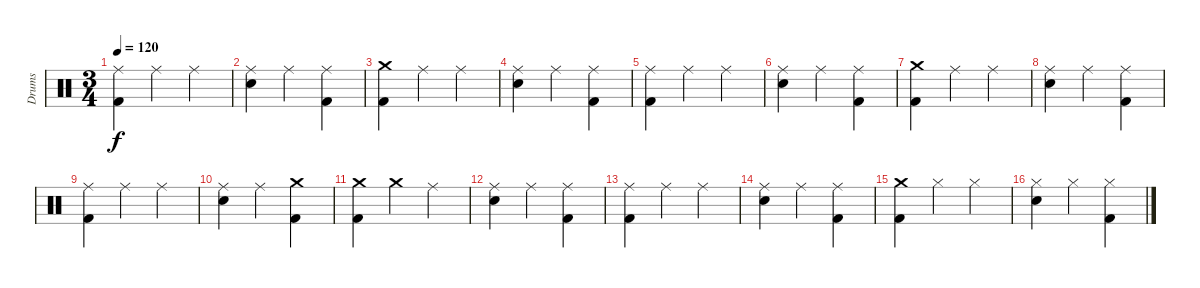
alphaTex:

\track ("Drums" "Drums") {instrument percussion}
\staff {score}
\articulation defaults
\ts (3 4)
\tempo 120
\clef neutral
\ks c
("Ride (middle)" "Kick (hit) 2").4{dy f} "Ride (middle)".4 "Ride (middle)".4 |
("Ride (middle)" "Electric Snare (hit)").4 "Ride (middle)".4 ("Ride (middle)" "Kick (hit) 2").4 |
("Crash medium (hit)" "Kick (hit) 2").4 "Ride (middle)".4 "Ride (middle)".4 |
("Ride (middle)" "Electric Snare (hit)").4 "Ride (middle)".4 ("Ride (middle)" "Kick (hit) 2").4 |
("Ride (middle)" "Kick (hit) 2").4 "Ride (middle)".4 "Ride (middle)".4 |
("Ride (middle)" "Electric Snare (hit)").4 "Ride (middle)".4 ("Ride (middle)" "Kick (hit) 2").4 |
("Crash medium (hit)" "Kick (hit) 2").4 "Ride (middle)".4 "Ride (middle)".4 |
("Ride (middle)" "Electric Snare (hit)").4 "Ride (middle)".4 ("Ride (middle)" "Kick (hit) 2").4 |
("Ride (middle)" "Kick (hit) 2").4 "Ride (middle)".4 "Ride (middle)".4 |
("Ride (middle)" "Electric Snare (hit)").4 "Ride (middle)".4 ("Crash medium (hit)" "Kick (hit) 2").4 |
("Crash medium (hit)" "Kick (hit) 2").4 "Crash medium (hit)".4 "Ride (middle)".4 |
("Ride (middle)" "Electric Snare (hit)").4 "Ride (middle)".4 ("Ride (middle)" "Kick (hit) 2").4 |
("Ride (middle)" "Kick (hit) 2").4 "Ride (middle)".4 "Ride (middle)".4 |
("Ride (middle)" "Electric Snare (hit)").4 "Ride (middle)".4 ("Ride (middle)" "Kick (hit) 2").4 |
("Crash medium (hit)" "Kick (hit) 2").4 "Hi-Hat (closed)".4 "Hi-Hat (closed)".4 |
("Hi-Hat (closed)" "Electric Snare (hit)").4 "Hi-Hat (closed)".4 ("Hi-Hat (closed)" "Kick (hit) 2").4
